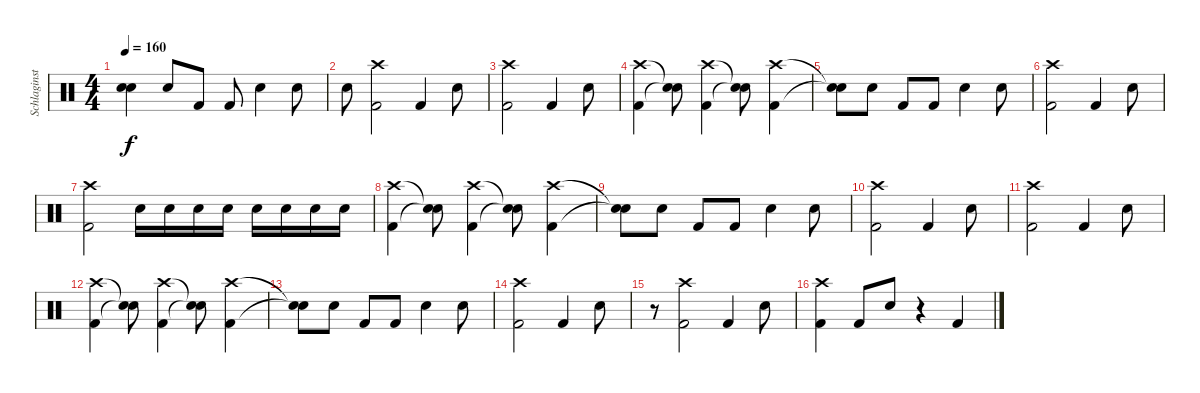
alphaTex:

\track ("Schlaginstrumente - Auswahl" "Schlaginst") {instrument percussion}
\staff {score}
\articulation defaults
\ts (4 4)
\tempo 160
\clef neutral
\ks c
("Snare (hit)"{t} "Snare (hit)"{t}).4{dy f} "Electric Snare (hit)".8 "Kick (hit) 2".8 "Kick (hit) 2".8 "Electric Snare (hit)".4 "Electric Snare (hit)".8 |
"Electric Snare (hit)".8 ("Crash high (hit)" "Kick (hit) 2").2 "Kick (hit) 2".4 "Electric Snare (hit)".8 |
("Crash high (hit)" "Kick (hit) 2").2 "Kick (hit) 2".4 "Electric Snare (hit)".8 |
("Crash high (hit)" "Kick (hit) 2").4 ("Snare (hit)"{t} "Snare (hit)"{t}).8 ("Crash high (hit)" "Kick (hit) 2").4 ("Snare (hit)"{t} "Snare (hit)"{t}).8 ("Crash high (hit)" "Kick (hit) 2").4 |
("Snare (hit)"{t} "Snare (hit)"{t}).8 "Electric Snare (hit)".8 "Kick (hit) 2".8 "Kick (hit) 2".8 "Electric Snare (hit)".4 "Electric Snare (hit)".8 |
("Crash high (hit)" "Kick (hit) 2").2 "Kick (hit) 2".4 "Electric Snare (hit)".8 |
("Crash high (hit)" "Kick (hit) 2").2 "Electric Snare (hit)".16 "Electric Snare (hit)".16 "Electric Snare (hit)".16 "Electric Snare (hit)".16 "Electric Snare (hit)".16 "Electric Snare (hit)".16 "Electric Snare (hit)".16 "Electric Snare (hit)".16 |
("Crash high (hit)" "Kick (hit) 2").4 ("Snare (hit)"{t} "Snare (hit)"{t}).8 ("Crash high (hit)" "Kick (hit) 2").4 ("Snare (hit)"{t} "Snare (hit)"{t}).8 ("Crash high (hit)" "Kick (hit) 2").4 |
("Snare (hit)"{t} "Snare (hit)"{t}).8 "Electric Snare (hit)".8 "Kick (hit) 2".8 "Kick (hit) 2".8 "Electric Snare (hit)".4 "Electric Snare (hit)".8 |
("Crash high (hit)" "Kick (hit) 2").2 "Kick (hit) 2".4 "Electric Snare (hit)".8 |
("Crash high (hit)" "Kick (hit) 2").2 "Kick (hit) 2".4 "Electric Snare (hit)".8 |
("Crash high (hit)" "Kick (hit) 2").4 ("Snare (hit)"{t} "Snare (hit)"{t}).8 ("Crash high (hit)" "Kick (hit) 2").4 ("Snare (hit)"{t} "Snare (hit)"{t}).8 ("Crash high (hit)" "Kick (hit) 2").4 |
("Snare (hit)"{t} "Snare (hit)"{t}).8 "Electric Snare (hit)".8 "Kick (hit) 2".8 "Kick (hit) 2".8 "Electric Snare (hit)".4 "Electric Snare (hit)".8 |
("Crash high (hit)" "Kick (hit) 2").2 "Kick (hit) 2".4 "Electric Snare (hit)".8 |
r.8 ("Crash high (hit)" "Kick (hit) 2").2 "Kick (hit) 2".4 "Electric Snare (hit)".8 |
("Crash high (hit)" "Kick (hit) 2").4 "Kick (hit) 2".8 "Electric Snare (hit)".8 r.4 "Kick (hit) 2".4
